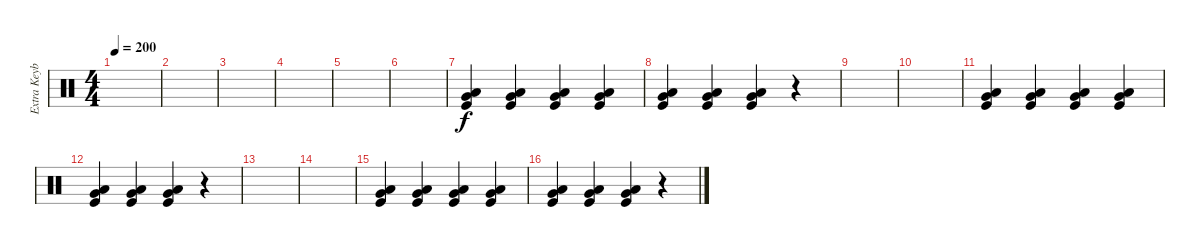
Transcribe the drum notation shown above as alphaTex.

\track ("Extra Keyboard" "Extra Keyb") {instrument percussion}
\staff {score}
\articulation defaults
\ts (4 4)
\tempo 200
\clef neutral
\ks c
|
|
|
|
|
|
("Very Low Tom (hit)" "Low Tom (hit)" "Kick (hit)").4 ("Very Low Tom (hit)" "Low Tom (hit)" "Kick (hit)").4 ("Very Low Tom (hit)" "Low Tom (hit)" "Kick (hit)").4 ("Very Low Tom (hit)" "Low Tom (hit)" "Kick (hit)").4 |
("Low Floor Tom (hit)" "Very Low Tom (hit)" "Kick (hit)").4 ("Low Floor Tom (hit)" "Very Low Tom (hit)" "Kick (hit)").4 ("Low Floor Tom (hit)" "Very Low Tom (hit)" "Kick (hit)").4 r.4 |
|
|
("Very Low Tom (hit)" "Low Tom (hit)" "Kick (hit)").4 ("Very Low Tom (hit)" "Low Tom (hit)" "Kick (hit)").4 ("Very Low Tom (hit)" "Low Tom (hit)" "Kick (hit)").4 ("Very Low Tom (hit)" "Low Tom (hit)" "Kick (hit)").4 |
("Low Floor Tom (hit)" "Very Low Tom (hit)" "Kick (hit)").4 ("Low Floor Tom (hit)" "Very Low Tom (hit)" "Kick (hit)").4 ("Low Floor Tom (hit)" "Very Low Tom (hit)" "Kick (hit)").4 r.4 |
|
|
("Very Low Tom (hit)" "Low Tom (hit)" "Kick (hit)").4 ("Very Low Tom (hit)" "Low Tom (hit)" "Kick (hit)").4 ("Very Low Tom (hit)" "Low Tom (hit)" "Kick (hit)").4 ("Very Low Tom (hit)" "Low Tom (hit)" "Kick (hit)").4 |
("Low Floor Tom (hit)" "Very Low Tom (hit)" "Kick (hit)").4 ("Low Floor Tom (hit)" "Very Low Tom (hit)" "Kick (hit)").4 ("Low Floor Tom (hit)" "Very Low Tom (hit)" "Kick (hit)").4 r.4
